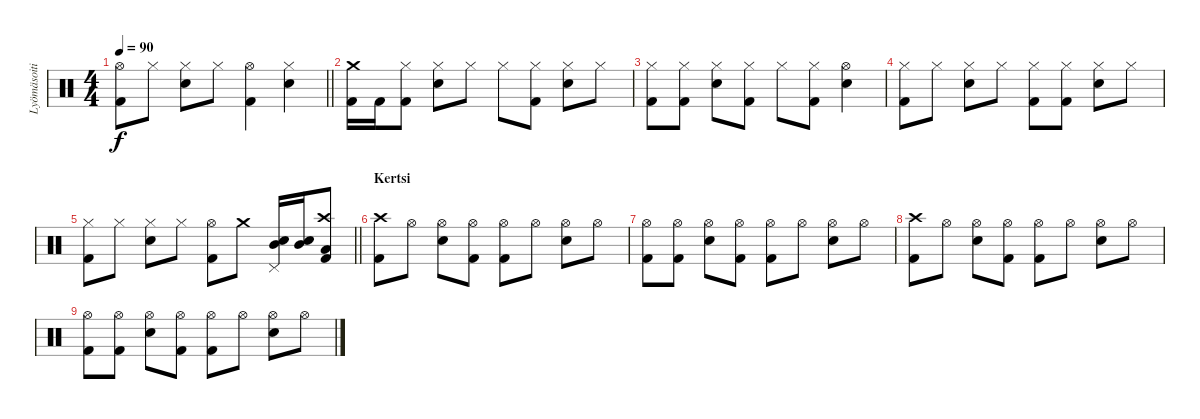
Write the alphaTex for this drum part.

\track ("Lyömäsoitin" "Lyömäsoiti") {instrument percussion}
\staff {score}
\articulation defaults
\ts (4 4)
\tempo 90
\clef neutral
\barLineRight lightlight
\ks c
("Hi-Hat (open)" "Kick (hit) 2").8{dy f} "Hi-Hat (closed)".8 ("Hi-Hat (closed)" "Snare (hit) 2").8 "Hi-Hat (closed)".8 ("Hi-Hat (open)" "Kick (hit) 2").4 ("Hi-Hat (closed)" "Snare (hit) 2").4 |
("Crash medium (hit)" "Kick (hit) 2").16 "Kick (hit) 2".16 ("Hi-Hat (closed)" "Kick (hit) 2").8 ("Hi-Hat (closed)" "Snare (hit) 2").8 "Hi-Hat (closed)".8 "Hi-Hat (closed)".8 ("Hi-Hat (closed)" "Kick (hit) 2").8 ("Hi-Hat (closed)" "Snare (hit) 2").8 "Hi-Hat (closed)".8 |
("Hi-Hat (closed)" "Kick (hit) 2").8 ("Hi-Hat (closed)" "Kick (hit) 2").8 ("Hi-Hat (closed)" "Snare (hit) 2").8 ("Hi-Hat (closed)" "Kick (hit) 2").8 "Hi-Hat (closed)".8 ("Hi-Hat (closed)" "Kick (hit) 2").8 ("Hi-Hat (open)" "Snare (hit) 2").4 |
("Hi-Hat (closed)" "Kick (hit) 2").8 "Hi-Hat (closed)".8 ("Hi-Hat (closed)" "Snare (hit) 2").8 "Hi-Hat (closed)".8 ("Hi-Hat (closed)" "Kick (hit) 2").8 ("Hi-Hat (closed)" "Kick (hit) 2").8 ("Hi-Hat (closed)" "Snare (hit) 2").8 "Hi-Hat (closed)".8 |
\barLineRight lightlight
("Hi-Hat (closed)" "Kick (hit) 2").8 "Hi-Hat (closed)".8 ("Hi-Hat (closed)" "Snare (hit) 2").8 "Hi-Hat (closed)".8 ("Hi-Hat (open)" "Kick (hit) 2").8 "Crash medium (hit)".8 ("Pedal Hi-Hat (hit)" "Mid Tom (hit)" "Snare (hit) 2").16 ("Mid Tom (hit)" "Snare (hit) 2").16 ("Crash high (hit)" "Low Tom (hit)" "Kick (hit) 2").8 |
\section ("" "Kertsi")
("Crash high (hit)" "Kick (hit) 2").8 "Hi-Hat (open)".8 ("Hi-Hat (open)" "Snare (hit) 2").8 ("Hi-Hat (open)" "Kick (hit) 2").8 ("Hi-Hat (open)" "Kick (hit) 2").8 "Hi-Hat (open)".8 ("Hi-Hat (open)" "Snare (hit) 2").8 "Hi-Hat (open)".8 |
("Hi-Hat (open)" "Kick (hit) 2").8 ("Hi-Hat (open)" "Kick (hit) 2").8 ("Hi-Hat (open)" "Snare (hit) 2").8 ("Hi-Hat (open)" "Kick (hit) 2").8 ("Hi-Hat (open)" "Kick (hit) 2").8 "Hi-Hat (open)".8 ("Hi-Hat (open)" "Snare (hit) 2").8 "Hi-Hat (open)".8 |
("Crash high (hit)" "Kick (hit) 2").8 "Hi-Hat (open)".8 ("Hi-Hat (open)" "Snare (hit) 2").8 ("Hi-Hat (open)" "Kick (hit) 2").8 ("Hi-Hat (open)" "Kick (hit) 2").8 "Hi-Hat (open)".8 ("Hi-Hat (open)" "Snare (hit) 2").8 "Hi-Hat (open)".8 |
("Hi-Hat (open)" "Kick (hit) 2").8 ("Hi-Hat (open)" "Kick (hit) 2").8 ("Hi-Hat (open)" "Snare (hit) 2").8 ("Hi-Hat (open)" "Kick (hit) 2").8 ("Hi-Hat (open)" "Kick (hit) 2").8 "Hi-Hat (open)".8 ("Hi-Hat (open)" "Snare (hit) 2").8 "Hi-Hat (open)".8
